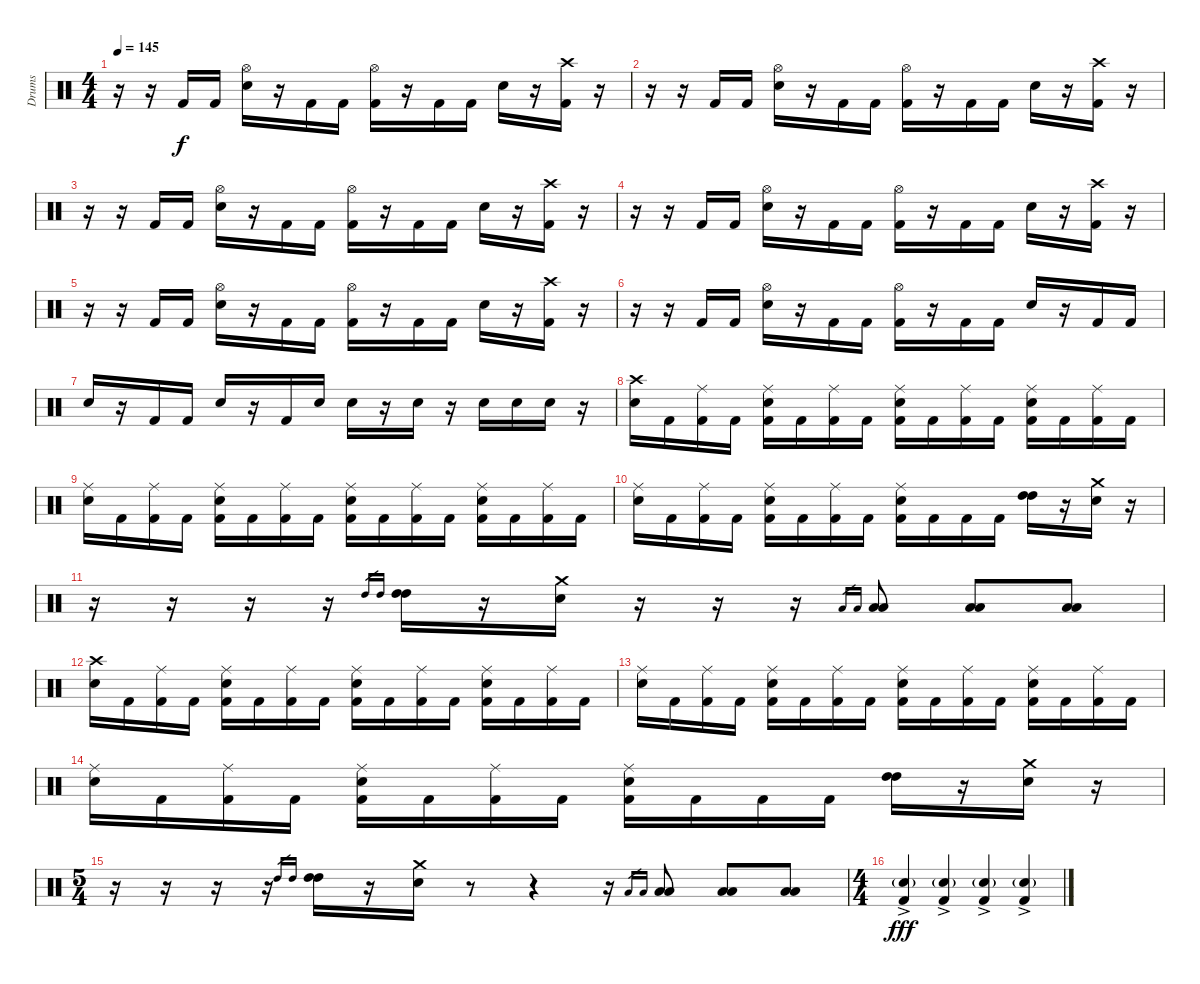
\track ("Drums" "Drums") {instrument percussion}
\staff {score}
\articulation defaults
\ts (4 4)
\tempo 145
\clef neutral
\ks c
r.16{dy f} r.16 "Kick (hit) 2".16 "Kick (hit) 2".16 ("Hi-Hat (open)" "Snare (hit) 2").16 r.16 "Kick (hit) 2".16 "Kick (hit) 2".16 ("Hi-Hat (open)" "Kick (hit) 2").16 r.16 "Kick (hit) 2".16 "Kick (hit) 2".16 "Snare (hit) 2".16 r.16 ("Crash high (hit)" "Kick (hit) 2").16 r.16 |
r.16 r.16 "Kick (hit) 2".16 "Kick (hit) 2".16 ("Hi-Hat (open)" "Snare (hit) 2").16 r.16 "Kick (hit) 2".16 "Kick (hit) 2".16 ("Hi-Hat (open)" "Kick (hit) 2").16 r.16 "Kick (hit) 2".16 "Kick (hit) 2".16 "Snare (hit) 2".16 r.16 ("Crash high (hit)" "Kick (hit) 2").16 r.16 |
r.16 r.16 "Kick (hit) 2".16 "Kick (hit) 2".16 ("Hi-Hat (open)" "Snare (hit) 2").16 r.16 "Kick (hit) 2".16 "Kick (hit) 2".16 ("Hi-Hat (open)" "Kick (hit) 2").16 r.16 "Kick (hit) 2".16 "Kick (hit) 2".16 "Snare (hit) 2".16 r.16 ("Crash high (hit)" "Kick (hit) 2").16 r.16 |
r.16 r.16 "Kick (hit) 2".16 "Kick (hit) 2".16 ("Hi-Hat (open)" "Snare (hit) 2").16 r.16 "Kick (hit) 2".16 "Kick (hit) 2".16 ("Hi-Hat (open)" "Kick (hit) 2").16 r.16 "Kick (hit) 2".16 "Kick (hit) 2".16 "Snare (hit) 2".16 r.16 ("Crash high (hit)" "Kick (hit) 2").16 r.16 |
r.16 r.16 "Kick (hit) 2".16 "Kick (hit) 2".16 ("Hi-Hat (open)" "Snare (hit) 2").16 r.16 "Kick (hit) 2".16 "Kick (hit) 2".16 ("Hi-Hat (open)" "Kick (hit) 2").16 r.16 "Kick (hit) 2".16 "Kick (hit) 2".16 "Snare (hit) 2".16 r.16 ("Crash high (hit)" "Kick (hit) 2").16 r.16 |
r.16 r.16 "Kick (hit) 2".16 "Kick (hit) 2".16 ("Hi-Hat (open)" "Snare (hit) 2").16 r.16 "Kick (hit) 2".16 "Kick (hit) 2".16 ("Hi-Hat (open)" "Kick (hit) 2").16 r.16 "Kick (hit) 2".16 "Kick (hit) 2".16 "Snare (hit) 2".16 r.16 "Kick (hit) 2".16 "Kick (hit) 2".16 |
"Snare (hit) 2".16 r.16 "Kick (hit) 2".16 "Kick (hit) 2".16 "Snare (hit) 2".16 r.16 "Kick (hit) 2".16 "Snare (hit) 2".16 "Snare (hit) 2".16 r.16 "Snare (hit) 2".16 r.16 "Snare (hit) 2".16 "Snare (hit) 2".16 "Snare (hit) 2".16 r.16 |
("Crash high (hit)" "Snare (hit) 2").16 "Kick (hit) 2".16 ("Ride (middle)" "Kick (hit) 2").16 "Kick (hit) 2".16 ("Ride (middle)" "Snare (hit) 2" "Kick (hit) 2").16 "Kick (hit) 2".16 ("Ride (middle)" "Kick (hit) 2").16 "Kick (hit) 2".16 ("Ride (middle)" "Snare (hit) 2" "Kick (hit) 2").16 "Kick (hit) 2".16 ("Ride (middle)" "Kick (hit) 2").16 "Kick (hit) 2".16 ("Ride (middle)" "Snare (hit) 2" "Kick (hit) 2").16 "Kick (hit) 2".16 ("Ride (middle)" "Kick (hit) 2").16 "Kick (hit) 2".16 |
("Ride (middle)" "Snare (hit) 2").16 "Kick (hit) 2".16 ("Ride (middle)" "Kick (hit) 2").16 "Kick (hit) 2".16 ("Ride (middle)" "Snare (hit) 2" "Kick (hit) 2").16 "Kick (hit) 2".16 ("Ride (middle)" "Kick (hit) 2").16 "Kick (hit) 2".16 ("Ride (middle)" "Snare (hit) 2" "Kick (hit) 2").16 "Kick (hit) 2".16 ("Ride (middle)" "Kick (hit) 2").16 "Kick (hit) 2".16 ("Ride (middle)" "Snare (hit) 2" "Kick (hit) 2").16 "Kick (hit) 2".16 ("Ride (middle)" "Kick (hit) 2").16 "Kick (hit) 2".16 |
("Ride (middle)" "Snare (hit) 2").16 "Kick (hit) 2".16 ("Ride (middle)" "Kick (hit) 2").16 "Kick (hit) 2".16 ("Ride (middle)" "Snare (hit) 2" "Kick (hit) 2").16 "Kick (hit) 2".16 ("Ride (middle)" "Kick (hit) 2").16 "Kick (hit) 2".16 ("Ride (middle)" "Snare (hit) 2" "Kick (hit) 2").16 "Kick (hit) 2".16 "Kick (hit) 2".16 "Kick (hit) 2".16 ("High Tom (hit)" "High Tom (hit)").16 r.16 ("Crash medium (hit)" "Snare (hit) 2").16 r.16 |
r.16 r.16 r.16 r.16 "High Tom (hit)".16{gr} "High Tom (hit)".16{gr} ("High Tom (hit)" "High Tom (hit)").16 r.16 ("Crash medium (hit)" "Snare (hit) 2").16 r.16 r.16 r.16 "Low Tom (hit)".16{gr} "Low Tom (hit)".16{gr} ("Low Tom (hit)" "Low Tom (hit)").8 ("Low Tom (hit)" "Low Tom (hit)").8 ("Low Tom (hit)" "Low Tom (hit)").8 |
("Crash high (hit)" "Snare (hit) 2").16 "Kick (hit) 2".16 ("Ride (middle)" "Kick (hit) 2").16 "Kick (hit) 2".16 ("Ride (middle)" "Snare (hit) 2" "Kick (hit) 2").16 "Kick (hit) 2".16 ("Ride (middle)" "Kick (hit) 2").16 "Kick (hit) 2".16 ("Ride (middle)" "Snare (hit) 2" "Kick (hit) 2").16 "Kick (hit) 2".16 ("Ride (middle)" "Kick (hit) 2").16 "Kick (hit) 2".16 ("Ride (middle)" "Snare (hit) 2" "Kick (hit) 2").16 "Kick (hit) 2".16 ("Ride (middle)" "Kick (hit) 2").16 "Kick (hit) 2".16 |
("Ride (middle)" "Snare (hit) 2").16 "Kick (hit) 2".16 ("Ride (middle)" "Kick (hit) 2").16 "Kick (hit) 2".16 ("Ride (middle)" "Snare (hit) 2" "Kick (hit) 2").16 "Kick (hit) 2".16 ("Ride (middle)" "Kick (hit) 2").16 "Kick (hit) 2".16 ("Ride (middle)" "Snare (hit) 2" "Kick (hit) 2").16 "Kick (hit) 2".16 ("Ride (middle)" "Kick (hit) 2").16 "Kick (hit) 2".16 ("Ride (middle)" "Snare (hit) 2" "Kick (hit) 2").16 "Kick (hit) 2".16 ("Ride (middle)" "Kick (hit) 2").16 "Kick (hit) 2".16 |
("Ride (middle)" "Snare (hit) 2").16 "Kick (hit) 2".16 ("Ride (middle)" "Kick (hit) 2").16 "Kick (hit) 2".16 ("Ride (middle)" "Snare (hit) 2" "Kick (hit) 2").16 "Kick (hit) 2".16 ("Ride (middle)" "Kick (hit) 2").16 "Kick (hit) 2".16 ("Ride (middle)" "Snare (hit) 2" "Kick (hit) 2").16 "Kick (hit) 2".16 "Kick (hit) 2".16 "Kick (hit) 2".16 ("High Tom (hit)" "High Tom (hit)").16 r.16 ("Crash medium (hit)" "Snare (hit) 2").16 r.16 |
\ts (5 4)
r.16 r.16 r.16 r.16 "High Tom (hit)".16{gr} "High Tom (hit)".16{gr} ("High Tom (hit)" "High Tom (hit)").16 r.16 ("Crash medium (hit)" "Snare (hit) 2").16 r.8 r.4 r.16 "Low Tom (hit)".16{gr} "Low Tom (hit)".16{gr} ("Low Tom (hit)" "Low Tom (hit)").8 ("Low Tom (hit)" "Low Tom (hit)").8 ("Low Tom (hit)" "Low Tom (hit)").8 |
\ts (4 4)
("Snare (hit) 2"{g} "Kick (hit) 2"{ac}).4{dy fff} ("Snare (hit) 2"{g} "Kick (hit) 2"{ac}).4 ("Snare (hit) 2"{g} "Kick (hit) 2"{ac}).4 ("Snare (hit) 2"{g} "Kick (hit) 2"{ac}).4
